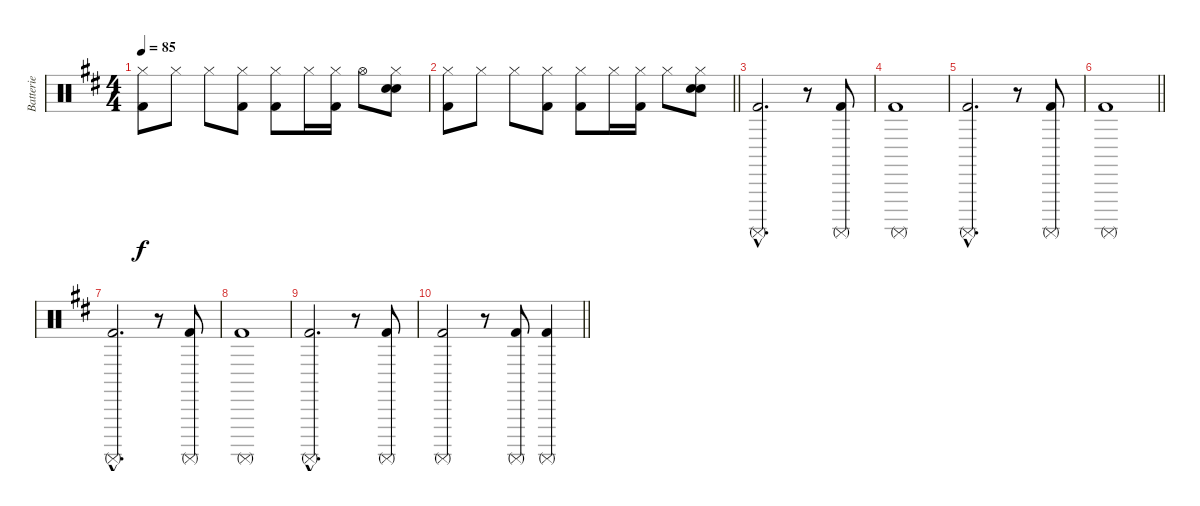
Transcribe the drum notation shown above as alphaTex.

\track ("Batterie" "Batterie") {instrument percussion}
\staff {score}
\articulation defaults
\ts (4 4)
\tempo 85
\clef neutral
\ks bminor
("Hi-Hat (closed)" "Kick (hit) 2").8{dy f} "Hi-Hat (closed)".8 "Hi-Hat (closed)".8 ("Hi-Hat (closed)" "Kick (hit) 2").8 ("Hi-Hat (closed)" "Kick (hit) 2").8 "Hi-Hat (closed)".16 ("Hi-Hat (closed)" "Kick (hit) 2").16 "Hi-Hat (open)".8 ("Hi-Hat (closed)" "Snare (hit) 2" "Electric Snare (hit)").8 |
\barLineRight lightlight
("Hi-Hat (closed)" "Kick (hit) 2").8 "Hi-Hat (closed)".8 "Hi-Hat (closed)".8 ("Hi-Hat (closed)" "Kick (hit) 2").8 ("Hi-Hat (closed)" "Kick (hit) 2").8 "Hi-Hat (closed)".16 ("Hi-Hat (closed)" "Kick (hit) 2").16 "Hi-Hat (closed)".8 ("Hi-Hat (closed)" "Snare (hit) 2" "Electric Snare (hit)").8 |
("Surdo (mute)"{hac} "Kick (hit) 2"{hac}).2{d volume 16} r.8 ("Surdo (mute)" "Kick (hit) 2").8 |
("Surdo (mute)" "Kick (hit) 2").1 |
("Surdo (mute)"{hac} "Kick (hit) 2"{hac}).2{d} r.8 ("Surdo (mute)" "Kick (hit) 2").8 |
\barLineRight lightlight
("Surdo (mute)" "Kick (hit) 2").1 |
("Surdo (mute)"{hac} "Kick (hit) 2"{hac}).2{d} r.8 ("Surdo (mute)" "Kick (hit) 2").8 |
("Surdo (mute)" "Kick (hit) 2").1 |
("Surdo (mute)"{hac} "Kick (hit) 2"{hac}).2{d} r.8 ("Surdo (mute)" "Kick (hit) 2").8 |
\barLineRight lightlight
("Surdo (mute)" "Kick (hit) 2").2 r.8 ("Surdo (mute)" "Kick (hit) 2").8 ("Surdo (mute)" "Kick (hit) 2").4
